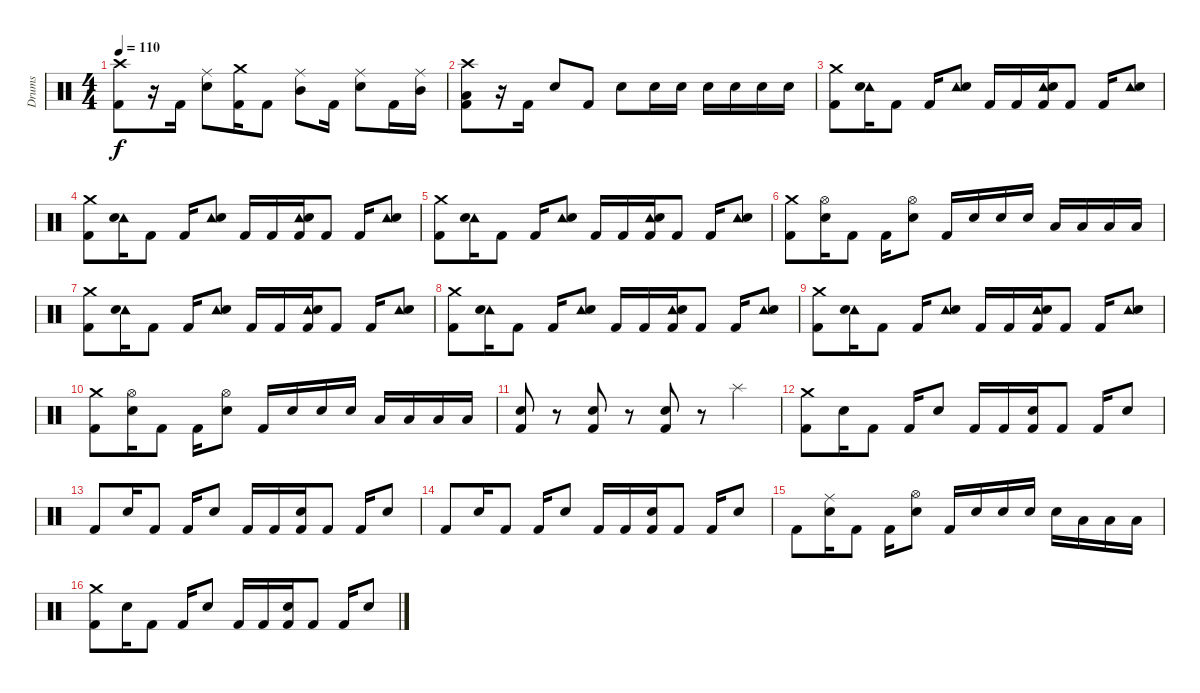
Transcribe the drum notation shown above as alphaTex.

\track ("Drums" "Drums") {instrument percussion}
\staff {score}
\articulation defaults
\ts (4 4)
\tempo 110
\clef neutral
\ks c
("Crash high (hit)" "Kick (hit) 2").8{dy f volume 16} r.16 "Kick (hit) 2".16 ("Ride (middle)" "Electric Snare (hit)").8 ("Crash medium (hit)" "Kick (hit) 2").16 "Kick (hit) 2".8 ("Ride (middle)" "Mid Tom (hit)").8 "Kick (hit) 2".16 ("Ride (middle)" "Electric Snare (hit)").8 "Kick (hit) 2".16 ("Ride (middle)" "Mid Tom (hit)").16 |
("Crash high (hit)" "Low Tom (hit)" "Kick (hit) 2").8 r.16 "Kick (hit) 2".16 "Electric Snare (hit)".8 "Kick (hit) 2".8 "Electric Snare (hit)".8 "Electric Snare (hit)".16 "Electric Snare (hit)".16 "Electric Snare (hit)".16 "Electric Snare (hit)".16 "Electric Snare (hit)".16 "Electric Snare (hit)".16 |
("Crash medium (hit)" "Kick (hit) 2").8{volume 13} ("Tambourine (hit)" "Electric Snare (hit)").16 "Kick (hit) 2".8 "Kick (hit) 2".16 ("Tambourine (hit)" "Electric Snare (hit)").8 "Kick (hit) 2".16 "Kick (hit) 2".16 ("Tambourine (hit)" "Electric Snare (hit)" "Kick (hit) 2").16 "Kick (hit) 2".8 "Kick (hit) 2".16 ("Tambourine (hit)" "Electric Snare (hit)").8 |
("Crash medium (hit)" "Kick (hit) 2").8 ("Tambourine (hit)" "Electric Snare (hit)").16 "Kick (hit) 2".8 "Kick (hit) 2".16 ("Tambourine (hit)" "Electric Snare (hit)").8 "Kick (hit) 2".16 "Kick (hit) 2".16 ("Tambourine (hit)" "Electric Snare (hit)" "Kick (hit) 2").16 "Kick (hit) 2".8 "Kick (hit) 2".16 ("Tambourine (hit)" "Electric Snare (hit)").8 |
("Crash medium (hit)" "Kick (hit) 2").8 ("Tambourine (hit)" "Electric Snare (hit)").16 "Kick (hit) 2".8 "Kick (hit) 2".16 ("Tambourine (hit)" "Electric Snare (hit)").8 "Kick (hit) 2".16 "Kick (hit) 2".16 ("Tambourine (hit)" "Electric Snare (hit)" "Kick (hit) 2").16 "Kick (hit) 2".8 "Kick (hit) 2".16 ("Tambourine (hit)" "Electric Snare (hit)").8 |
("Crash medium (hit)" "Kick (hit) 2").8 ("Hi-Hat (open)" "Electric Snare (hit)").16 "Kick (hit) 2".8 "Kick (hit) 2".16 ("Hi-Hat (open)" "Electric Snare (hit)").8 "Kick (hit) 2".16 "Electric Snare (hit)".16 "Electric Snare (hit)".16 "Electric Snare (hit)".16 "Low Tom (hit)".16 "Low Tom (hit)".16 "Low Tom (hit)".16 "Low Floor Tom (hit)".16 |
("Crash medium (hit)" "Kick (hit) 2").8 ("Tambourine (hit)" "Electric Snare (hit)").16 "Kick (hit) 2".8 "Kick (hit) 2".16 ("Tambourine (hit)" "Electric Snare (hit)").8 "Kick (hit) 2".16 "Kick (hit) 2".16 ("Tambourine (hit)" "Electric Snare (hit)" "Kick (hit) 2").16 "Kick (hit) 2".8 "Kick (hit) 2".16 ("Tambourine (hit)" "Electric Snare (hit)").8 |
("Crash medium (hit)" "Kick (hit) 2").8 ("Tambourine (hit)" "Electric Snare (hit)").16 "Kick (hit) 2".8 "Kick (hit) 2".16 ("Tambourine (hit)" "Electric Snare (hit)").8 "Kick (hit) 2".16 "Kick (hit) 2".16 ("Tambourine (hit)" "Electric Snare (hit)" "Kick (hit) 2").16 "Kick (hit) 2".8 "Kick (hit) 2".16 ("Tambourine (hit)" "Electric Snare (hit)").8 |
("Crash medium (hit)" "Kick (hit) 2").8 ("Tambourine (hit)" "Electric Snare (hit)").16 "Kick (hit) 2".8 "Kick (hit) 2".16 ("Tambourine (hit)" "Electric Snare (hit)").8 "Kick (hit) 2".16 "Kick (hit) 2".16 ("Tambourine (hit)" "Electric Snare (hit)" "Kick (hit) 2").16 "Kick (hit) 2".8 "Kick (hit) 2".16 ("Tambourine (hit)" "Electric Snare (hit)").8 |
("Crash medium (hit)" "Kick (hit) 2").8 ("Hi-Hat (open)" "Electric Snare (hit)").16 "Kick (hit) 2".8 "Kick (hit) 2".16 ("Hi-Hat (open)" "Electric Snare (hit)").8 "Kick (hit) 2".16 "Electric Snare (hit)".16 "Electric Snare (hit)".16 "Electric Snare (hit)".16 "Low Tom (hit)".16 "Low Tom (hit)".16 "Low Tom (hit)".16 "Low Floor Tom (hit)".16 |
("Electric Snare (hit)" "Kick (hit) 2").8 r.8 ("Electric Snare (hit)" "Kick (hit) 2").8 r.8 ("Electric Snare (hit)" "Kick (hit) 2").8 r.8 "Splash (hit)".4 |
("Crash medium (hit)" "Kick (hit) 2").8{volume 13} "Electric Snare (hit)".16 "Kick (hit) 2".8 "Kick (hit) 2".16 "Electric Snare (hit)".8 "Kick (hit) 2".16 "Kick (hit) 2".16 ("Electric Snare (hit)" "Kick (hit) 2").16 "Kick (hit) 2".8 "Kick (hit) 2".16 "Electric Snare (hit)".8 |
"Kick (hit) 2".8 "Electric Snare (hit)".16 "Kick (hit) 2".8 "Kick (hit) 2".16 "Electric Snare (hit)".8 "Kick (hit) 2".16 "Kick (hit) 2".16 ("Electric Snare (hit)" "Kick (hit) 2").16 "Kick (hit) 2".8 "Kick (hit) 2".16 "Electric Snare (hit)".8 |
"Kick (hit) 2".8 "Electric Snare (hit)".16 "Kick (hit) 2".8 "Kick (hit) 2".16 "Electric Snare (hit)".8 "Kick (hit) 2".16 "Kick (hit) 2".16 ("Electric Snare (hit)" "Kick (hit) 2").16 "Kick (hit) 2".8 "Kick (hit) 2".16 "Electric Snare (hit)".8 |
"Kick (hit) 2".8 ("Ride (middle)" "Electric Snare (hit)").16 "Kick (hit) 2".8 "Kick (hit) 2".16 ("Hi-Hat (open)" "Electric Snare (hit)").8 "Kick (hit) 2".16 "Electric Snare (hit)".16 "Electric Snare (hit)".16 "Electric Snare (hit)".16 "Electric Snare (hit)".16 "Low Tom (hit)".16 "Low Tom (hit)".16 "Low Floor Tom (hit)".16 |
("Crash medium (hit)" "Kick (hit) 2").8 "Electric Snare (hit)".16 "Kick (hit) 2".8 "Kick (hit) 2".16 "Electric Snare (hit)".8 "Kick (hit) 2".16 "Kick (hit) 2".16 ("Electric Snare (hit)" "Kick (hit) 2").16 "Kick (hit) 2".8 "Kick (hit) 2".16 "Electric Snare (hit)".8
